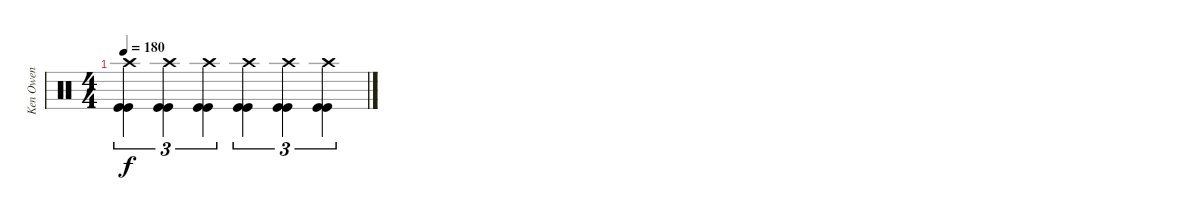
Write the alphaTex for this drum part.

\track ("Ken Owen" "Ken Owen") {instrument percussion}
\staff {score}
\articulation defaults
\ts (4 4)
\tempo 180
\clef neutral
\ks c
("Crash high (hit)" "Kick (hit)" "Kick (hit)").4{tu (3 2) dy f} ("Crash high (hit)" "Kick (hit)" "Kick (hit)").4{tu (3 2)} ("Crash high (hit)" "Kick (hit)" "Kick (hit)").4{tu (3 2)} ("Crash high (hit)" "Kick (hit)" "Kick (hit)").4{tu (3 2)} ("Crash high (hit)" "Kick (hit)" "Kick (hit)").4{tu (3 2)} ("Crash high (hit)" "Kick (hit)" "Kick (hit)").4{tu (3 2)}
